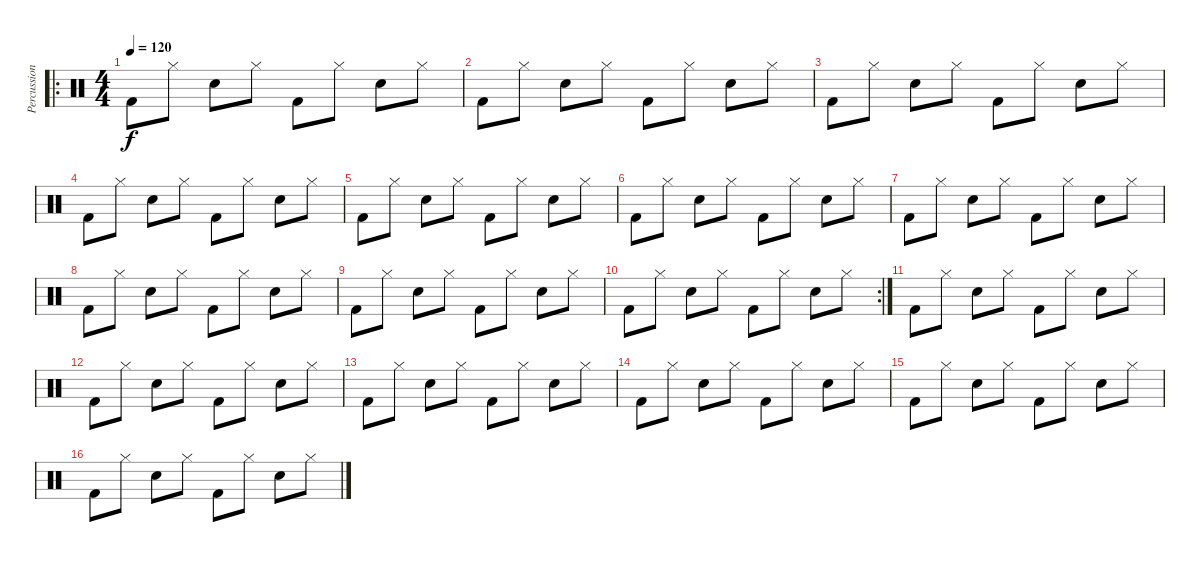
\track ("Percussion" "Percussion") {instrument percussion}
\staff {score}
\articulation defaults
\ro
\ts (4 4)
\tempo 120
\clef neutral
\ks c "Kick (hit) 2".8{dy f} "Hi-Hat (closed)".8 "Snare (hit) 2".8 "Hi-Hat (closed)".8 "Kick (hit) 2".8 "Hi-Hat (closed)".8 "Snare (hit) 2".8 "Hi-Hat (closed)".8
|
"Kick (hit) 2".8 "Hi-Hat (closed)".8 "Snare (hit) 2".8 "Hi-Hat (closed)".8 "Kick (hit) 2".8 "Hi-Hat (closed)".8 "Snare (hit) 2".8 "Hi-Hat (closed)".8 |
"Kick (hit) 2".8 "Hi-Hat (closed)".8 "Snare (hit) 2".8 "Hi-Hat (closed)".8 "Kick (hit) 2".8 "Hi-Hat (closed)".8 "Snare (hit) 2".8 "Hi-Hat (closed)".8 |
"Kick (hit) 2".8 "Hi-Hat (closed)".8 "Snare (hit) 2".8 "Hi-Hat (closed)".8 "Kick (hit) 2".8 "Hi-Hat (closed)".8 "Snare (hit) 2".8 "Hi-Hat (closed)".8 |
"Kick (hit) 2".8 "Hi-Hat (closed)".8 "Snare (hit) 2".8 "Hi-Hat (closed)".8 "Kick (hit) 2".8 "Hi-Hat (closed)".8 "Snare (hit) 2".8 "Hi-Hat (closed)".8 |
"Kick (hit) 2".8 "Hi-Hat (closed)".8 "Snare (hit) 2".8 "Hi-Hat (closed)".8 "Kick (hit) 2".8 "Hi-Hat (closed)".8 "Snare (hit) 2".8 "Hi-Hat (closed)".8 |
"Kick (hit) 2".8 "Hi-Hat (closed)".8 "Snare (hit) 2".8 "Hi-Hat (closed)".8 "Kick (hit) 2".8 "Hi-Hat (closed)".8 "Snare (hit) 2".8 "Hi-Hat (closed)".8 |
"Kick (hit) 2".8 "Hi-Hat (closed)".8 "Snare (hit) 2".8 "Hi-Hat (closed)".8 "Kick (hit) 2".8 "Hi-Hat (closed)".8 "Snare (hit) 2".8 "Hi-Hat (closed)".8 |
"Kick (hit) 2".8 "Hi-Hat (closed)".8 "Snare (hit) 2".8 "Hi-Hat (closed)".8 "Kick (hit) 2".8 "Hi-Hat (closed)".8 "Snare (hit) 2".8 "Hi-Hat (closed)".8 |
\rc 2 "Kick (hit) 2".8 "Hi-Hat (closed)".8 "Snare (hit) 2".8 "Hi-Hat (closed)".8 "Kick (hit) 2".8 "Hi-Hat (closed)".8 "Snare (hit) 2".8 "Hi-Hat (closed)".8
|
"Kick (hit) 2".8 "Hi-Hat (closed)".8 "Snare (hit) 2".8 "Hi-Hat (closed)".8 "Kick (hit) 2".8 "Hi-Hat (closed)".8 "Snare (hit) 2".8 "Hi-Hat (closed)".8 |
"Kick (hit) 2".8 "Hi-Hat (closed)".8 "Snare (hit) 2".8 "Hi-Hat (closed)".8 "Kick (hit) 2".8 "Hi-Hat (closed)".8 "Snare (hit) 2".8 "Hi-Hat (closed)".8 |
"Kick (hit) 2".8 "Hi-Hat (closed)".8 "Snare (hit) 2".8 "Hi-Hat (closed)".8 "Kick (hit) 2".8 "Hi-Hat (closed)".8 "Snare (hit) 2".8 "Hi-Hat (closed)".8 |
"Kick (hit) 2".8 "Hi-Hat (closed)".8 "Snare (hit) 2".8 "Hi-Hat (closed)".8 "Kick (hit) 2".8 "Hi-Hat (closed)".8 "Snare (hit) 2".8 "Hi-Hat (closed)".8 |
"Kick (hit) 2".8 "Hi-Hat (closed)".8 "Snare (hit) 2".8 "Hi-Hat (closed)".8 "Kick (hit) 2".8 "Hi-Hat (closed)".8 "Snare (hit) 2".8 "Hi-Hat (closed)".8 |
"Kick (hit) 2".8 "Hi-Hat (closed)".8 "Snare (hit) 2".8 "Hi-Hat (closed)".8 "Kick (hit) 2".8 "Hi-Hat (closed)".8 "Snare (hit) 2".8 "Hi-Hat (closed)".8
